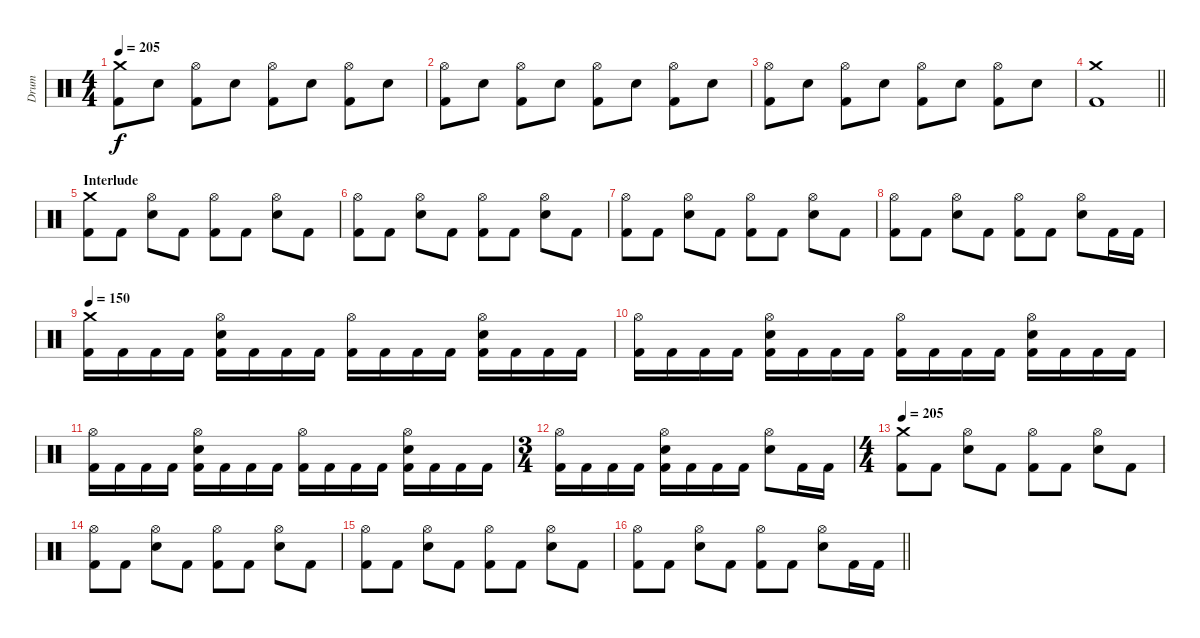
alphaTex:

\track ("Drum" "Drum") {instrument percussion}
\staff {score}
\articulation defaults
\ts (4 4)
\tempo 205
\clef neutral
\ks c
("Crash medium (hit)" "Kick (hit) 2").8{dy f} "Electric Snare (hit)".8 ("Hi-Hat (open)" "Kick (hit) 2").8 "Electric Snare (hit)".8 ("Hi-Hat (open)" "Kick (hit) 2").8 "Electric Snare (hit)".8 ("Hi-Hat (open)" "Kick (hit) 2").8 "Electric Snare (hit)".8 |
("Hi-Hat (open)" "Kick (hit) 2").8 "Electric Snare (hit)".8 ("Hi-Hat (open)" "Kick (hit) 2").8 "Electric Snare (hit)".8 ("Hi-Hat (open)" "Kick (hit) 2").8 "Electric Snare (hit)".8 ("Hi-Hat (open)" "Kick (hit) 2").8 "Electric Snare (hit)".8 |
("Hi-Hat (open)" "Kick (hit) 2").8 "Electric Snare (hit)".8 ("Hi-Hat (open)" "Kick (hit) 2").8 "Electric Snare (hit)".8 ("Hi-Hat (open)" "Kick (hit) 2").8 "Electric Snare (hit)".8 ("Hi-Hat (open)" "Kick (hit) 2").8 "Electric Snare (hit)".8 |
\barLineRight lightlight
("Crash medium (hit)" "Kick (hit) 2").1 |
\section ("" "Interlude")
("Crash medium (hit)" "Kick (hit) 2").8 "Kick (hit) 2".8 ("Hi-Hat (open)" "Electric Snare (hit)").8 "Kick (hit) 2".8 ("Hi-Hat (open)" "Kick (hit) 2").8 "Kick (hit) 2".8 ("Hi-Hat (open)" "Electric Snare (hit)").8 "Kick (hit) 2".8 |
("Hi-Hat (open)" "Kick (hit) 2").8 "Kick (hit) 2".8 ("Hi-Hat (open)" "Electric Snare (hit)").8 "Kick (hit) 2".8 ("Hi-Hat (open)" "Kick (hit) 2").8 "Kick (hit) 2".8 ("Hi-Hat (open)" "Electric Snare (hit)").8 "Kick (hit) 2".8 |
("Hi-Hat (open)" "Kick (hit) 2").8 "Kick (hit) 2".8 ("Hi-Hat (open)" "Electric Snare (hit)").8 "Kick (hit) 2".8 ("Hi-Hat (open)" "Kick (hit) 2").8 "Kick (hit) 2".8 ("Hi-Hat (open)" "Electric Snare (hit)").8 "Kick (hit) 2".8 |
("Hi-Hat (open)" "Kick (hit) 2").8 "Kick (hit) 2".8 ("Hi-Hat (open)" "Electric Snare (hit)").8 "Kick (hit) 2".8 ("Hi-Hat (open)" "Kick (hit) 2").8 "Kick (hit) 2".8 ("Hi-Hat (open)" "Electric Snare (hit)").8 "Kick (hit) 2".16 "Kick (hit) 2".16 |
\tempo 150
("Crash medium (hit)" "Kick (hit) 2").16 "Kick (hit) 2".16 "Kick (hit) 2".16 "Kick (hit) 2".16 ("Hi-Hat (open)" "Electric Snare (hit)" "Kick (hit) 2").16 "Kick (hit) 2".16 "Kick (hit) 2".16 "Kick (hit) 2".16 ("Hi-Hat (open)" "Kick (hit) 2").16 "Kick (hit) 2".16 "Kick (hit) 2".16 "Kick (hit) 2".16 ("Hi-Hat (open)" "Electric Snare (hit)" "Kick (hit) 2").16 "Kick (hit) 2".16 "Kick (hit) 2".16 "Kick (hit) 2".16 |
("Hi-Hat (open)" "Kick (hit) 2").16 "Kick (hit) 2".16 "Kick (hit) 2".16 "Kick (hit) 2".16 ("Hi-Hat (open)" "Electric Snare (hit)" "Kick (hit) 2").16 "Kick (hit) 2".16 "Kick (hit) 2".16 "Kick (hit) 2".16 ("Hi-Hat (open)" "Kick (hit) 2").16 "Kick (hit) 2".16 "Kick (hit) 2".16 "Kick (hit) 2".16 ("Hi-Hat (open)" "Electric Snare (hit)" "Kick (hit) 2").16 "Kick (hit) 2".16 "Kick (hit) 2".16 "Kick (hit) 2".16 |
("Hi-Hat (open)" "Kick (hit) 2").16 "Kick (hit) 2".16 "Kick (hit) 2".16 "Kick (hit) 2".16 ("Hi-Hat (open)" "Electric Snare (hit)" "Kick (hit) 2").16 "Kick (hit) 2".16 "Kick (hit) 2".16 "Kick (hit) 2".16 ("Hi-Hat (open)" "Kick (hit) 2").16 "Kick (hit) 2".16 "Kick (hit) 2".16 "Kick (hit) 2".16 ("Hi-Hat (open)" "Electric Snare (hit)" "Kick (hit) 2").16 "Kick (hit) 2".16 "Kick (hit) 2".16 "Kick (hit) 2".16 |
\ts (3 4)
("Hi-Hat (open)" "Kick (hit) 2").16 "Kick (hit) 2".16 "Kick (hit) 2".16 "Kick (hit) 2".16 ("Hi-Hat (open)" "Electric Snare (hit)" "Kick (hit) 2").16 "Kick (hit) 2".16 "Kick (hit) 2".16 "Kick (hit) 2".16 ("Hi-Hat (open)" "Electric Snare (hit)").8 "Kick (hit) 2".16 "Kick (hit) 2".16 |
\ts (4 4)
\tempo 205
("Crash medium (hit)" "Kick (hit) 2").8 "Kick (hit) 2".8 ("Hi-Hat (open)" "Electric Snare (hit)").8 "Kick (hit) 2".8 ("Hi-Hat (open)" "Kick (hit) 2").8 "Kick (hit) 2".8 ("Hi-Hat (open)" "Electric Snare (hit)").8 "Kick (hit) 2".8 |
("Hi-Hat (open)" "Kick (hit) 2").8 "Kick (hit) 2".8 ("Hi-Hat (open)" "Electric Snare (hit)").8 "Kick (hit) 2".8 ("Hi-Hat (open)" "Kick (hit) 2").8 "Kick (hit) 2".8 ("Hi-Hat (open)" "Electric Snare (hit)").8 "Kick (hit) 2".8 |
("Hi-Hat (open)" "Kick (hit) 2").8 "Kick (hit) 2".8 ("Hi-Hat (open)" "Electric Snare (hit)").8 "Kick (hit) 2".8 ("Hi-Hat (open)" "Kick (hit) 2").8 "Kick (hit) 2".8 ("Hi-Hat (open)" "Electric Snare (hit)").8 "Kick (hit) 2".8 |
\barLineRight lightlight
("Hi-Hat (open)" "Kick (hit) 2").8 "Kick (hit) 2".8 ("Hi-Hat (open)" "Electric Snare (hit)").8 "Kick (hit) 2".8 ("Hi-Hat (open)" "Kick (hit) 2").8 "Kick (hit) 2".8 ("Hi-Hat (open)" "Electric Snare (hit)").8 "Kick (hit) 2".16 "Kick (hit) 2".16
